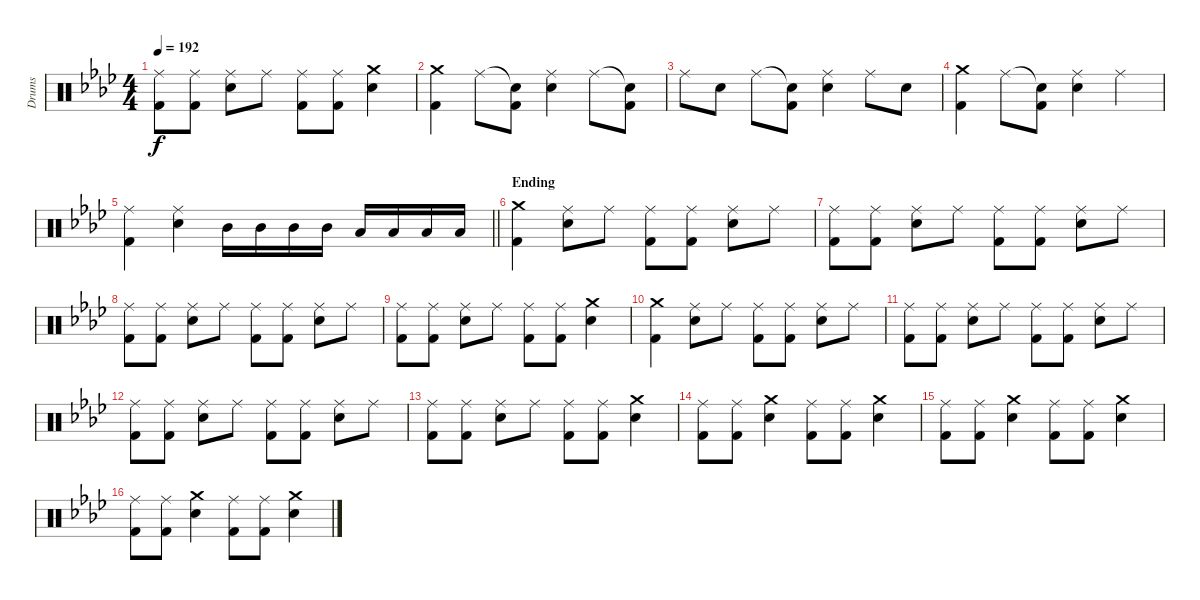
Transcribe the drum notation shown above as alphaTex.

\track ("Drums" "Drums") {instrument percussion}
\staff {score}
\articulation defaults
\ts (4 4)
\tempo 192
\clef neutral
\ks ab
("Ride (middle)" "Kick (hit) 2").8{dy f} ("Ride (middle)" "Kick (hit) 2").8 ("Ride (middle)" "Electric Snare (hit)").8 "Ride (middle)".8 ("Ride (middle)" "Kick (hit) 2").8 ("Ride (middle)" "Kick (hit) 2").8 ("Crash medium (hit)" "Electric Snare (hit)").4 |
("Crash medium (hit)" "Kick (hit) 2").4 "Ride (middle)".8 ("Snare (hit)"{t} "Kick (hit) 2").8 ("Ride (middle)" "Electric Snare (hit)").4 "Ride (middle)".8 ("Snare (hit)"{t} "Kick (hit) 2").8 |
"Ride (middle)".8 "Electric Snare (hit)".8 "Ride (middle)".8 ("Snare (hit)"{t} "Kick (hit) 2").8 ("Ride (middle)" "Electric Snare (hit)").4 "Ride (middle)".8 "Electric Snare (hit)".8 |
("Crash medium (hit)" "Kick (hit) 2").4 "Ride (middle)".8 ("Snare (hit)"{t} "Kick (hit) 2").8 ("Ride (middle)" "Electric Snare (hit)").4 "Ride (middle)".4 |
\barLineRight lightlight
("Ride (middle)" "Kick (hit) 2").4 ("Ride (middle)" "Electric Snare (hit)").4 "Mid Tom (hit)".16 "Mid Tom (hit)".16 "Mid Tom (hit)".16 "Mid Tom (hit)".16 "Low Floor Tom (hit)".16 "Low Floor Tom (hit)".16 "Low Floor Tom (hit)".16 "Low Floor Tom (hit)".16 |
\section ("" "Ending")
("Crash medium (hit)" "Kick (hit) 2").4 ("Ride (middle)" "Electric Snare (hit)").8 "Ride (middle)".8 ("Ride (middle)" "Kick (hit) 2").8 ("Ride (middle)" "Kick (hit) 2").8 ("Ride (middle)" "Electric Snare (hit)").8 "Ride (middle)".8 |
("Ride (middle)" "Kick (hit) 2").8 ("Ride (middle)" "Kick (hit) 2").8 ("Ride (middle)" "Electric Snare (hit)").8 "Ride (middle)".8 ("Ride (middle)" "Kick (hit) 2").8 ("Ride (middle)" "Kick (hit) 2").8 ("Ride (middle)" "Electric Snare (hit)").8 "Ride (middle)".8 |
("Ride (middle)" "Kick (hit) 2").8 ("Ride (middle)" "Kick (hit) 2").8 ("Ride (middle)" "Electric Snare (hit)").8 "Ride (middle)".8 ("Ride (middle)" "Kick (hit) 2").8 ("Ride (middle)" "Kick (hit) 2").8 ("Ride (middle)" "Electric Snare (hit)").8 "Ride (middle)".8 |
("Ride (middle)" "Kick (hit) 2").8 ("Ride (middle)" "Kick (hit) 2").8 ("Ride (middle)" "Electric Snare (hit)").8 "Ride (middle)".8 ("Ride (middle)" "Kick (hit) 2").8 ("Ride (middle)" "Kick (hit) 2").8 ("Crash medium (hit)" "Electric Snare (hit)").4 |
("Crash medium (hit)" "Kick (hit) 2").4 ("Ride (middle)" "Electric Snare (hit)").8 "Ride (middle)".8 ("Ride (middle)" "Kick (hit) 2").8 ("Ride (middle)" "Kick (hit) 2").8 ("Ride (middle)" "Electric Snare (hit)").8 "Ride (middle)".8 |
("Ride (middle)" "Kick (hit) 2").8 ("Ride (middle)" "Kick (hit) 2").8 ("Ride (middle)" "Electric Snare (hit)").8 "Ride (middle)".8 ("Ride (middle)" "Kick (hit) 2").8 ("Ride (middle)" "Kick (hit) 2").8 ("Ride (middle)" "Electric Snare (hit)").8 "Ride (middle)".8 |
("Ride (middle)" "Kick (hit) 2").8 ("Ride (middle)" "Kick (hit) 2").8 ("Ride (middle)" "Electric Snare (hit)").8 "Ride (middle)".8 ("Ride (middle)" "Kick (hit) 2").8 ("Ride (middle)" "Kick (hit) 2").8 ("Ride (middle)" "Electric Snare (hit)").8 "Ride (middle)".8 |
("Ride (middle)" "Kick (hit) 2").8 ("Ride (middle)" "Kick (hit) 2").8 ("Ride (middle)" "Electric Snare (hit)").8 "Ride (middle)".8 ("Ride (middle)" "Kick (hit) 2").8 ("Ride (middle)" "Kick (hit) 2").8 ("Crash medium (hit)" "Electric Snare (hit)").4 |
("Ride (middle)" "Kick (hit) 2").8 ("Ride (middle)" "Kick (hit) 2").8 ("Crash medium (hit)" "Electric Snare (hit)").4 ("Ride (middle)" "Kick (hit) 2").8 ("Ride (middle)" "Kick (hit) 2").8 ("Crash medium (hit)" "Electric Snare (hit)").4 |
("Ride (middle)" "Kick (hit) 2").8 ("Ride (middle)" "Kick (hit) 2").8 ("Crash medium (hit)" "Electric Snare (hit)").4 ("Ride (middle)" "Kick (hit) 2").8 ("Ride (middle)" "Kick (hit) 2").8 ("Crash medium (hit)" "Electric Snare (hit)").4 |
("Ride (middle)" "Kick (hit) 2").8 ("Ride (middle)" "Kick (hit) 2").8 ("Crash medium (hit)" "Electric Snare (hit)").4 ("Ride (middle)" "Kick (hit) 2").8 ("Ride (middle)" "Kick (hit) 2").8 ("Crash medium (hit)" "Electric Snare (hit)").4
